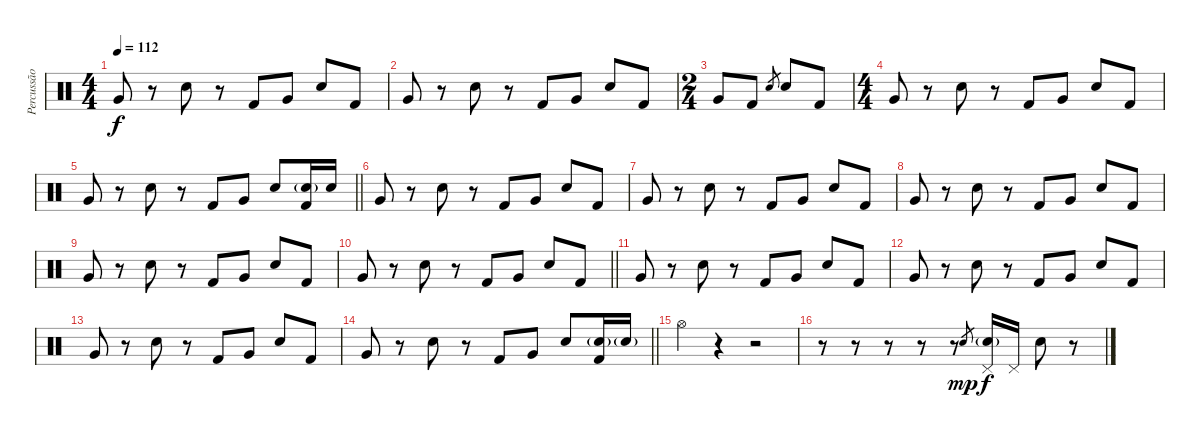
\track ("Percussão" "Percussão") {instrument percussion}
\staff {score}
\articulation defaults
\ts (4 4)
\tempo 112
\clef neutral
\ks c "Very Low Tom (hit)".8{dy f}
r.8 "Electric Snare (hit)".8 r.8 "Kick (hit) 2".8 "Very Low Tom (hit)".8 "Electric Snare (hit)".8 "Kick (hit) 2".8 |
"Very Low Tom (hit)".8 r.8 "Electric Snare (hit)".8 r.8 "Kick (hit) 2".8 "Very Low Tom (hit)".8 "Electric Snare (hit)".8 "Kick (hit) 2".8 |
\ts (2 4)
"Very Low Tom (hit)".8 "Kick (hit) 2".8 "Electric Snare (hit)".8{gr} "Electric Snare (hit)".8 "Kick (hit) 2".8 |
\ts (4 4)
"Very Low Tom (hit)".8 r.8 "Electric Snare (hit)".8 r.8 "Kick (hit) 2".8 "Very Low Tom (hit)".8 "Electric Snare (hit)".8 "Kick (hit) 2".8 |
\barLineRight lightlight "Very Low Tom (hit)".8
r.8 "Electric Snare (hit)".8 r.8 "Kick (hit) 2".8 "Very Low Tom (hit)".8 "Electric Snare (hit)".8 ("Electric Snare (hit)"{g} "Kick (hit) 2").16 "Electric Snare (hit)".16 |
"Very Low Tom (hit)".8 r.8 "Electric Snare (hit)".8 r.8 "Kick (hit) 2".8 "Very Low Tom (hit)".8 "Electric Snare (hit)".8 "Kick (hit) 2".8 |
"Very Low Tom (hit)".8 r.8 "Electric Snare (hit)".8 r.8 "Kick (hit) 2".8 "Very Low Tom (hit)".8 "Electric Snare (hit)".8 "Kick (hit) 2".8 |
"Very Low Tom (hit)".8 r.8 "Electric Snare (hit)".8 r.8 "Kick (hit) 2".8 "Very Low Tom (hit)".8 "Electric Snare (hit)".8 "Kick (hit) 2".8 |
"Very Low Tom (hit)".8 r.8 "Electric Snare (hit)".8 r.8 "Kick (hit) 2".8 "Very Low Tom (hit)".8 "Electric Snare (hit)".8 "Kick (hit) 2".8 |
\barLineRight lightlight "Very Low Tom (hit)".8
r.8 "Electric Snare (hit)".8 r.8 "Kick (hit) 2".8 "Very Low Tom (hit)".8 "Electric Snare (hit)".8 "Kick (hit) 2".8 |
"Very Low Tom (hit)".8 r.8 "Electric Snare (hit)".8 r.8 "Kick (hit) 2".8 "Very Low Tom (hit)".8 "Electric Snare (hit)".8 "Kick (hit) 2".8 |
"Very Low Tom (hit)".8 r.8 "Electric Snare (hit)".8 r.8 "Kick (hit) 2".8 "Very Low Tom (hit)".8 "Electric Snare (hit)".8 "Kick (hit) 2".8 |
"Very Low Tom (hit)".8 r.8 "Electric Snare (hit)".8 r.8 "Kick (hit) 2".8 "Very Low Tom (hit)".8 "Electric Snare (hit)".8 "Kick (hit) 2".8 |
\barLineRight lightlight "Very Low Tom (hit)".8
r.8 "Electric Snare (hit)".8 r.8 "Kick (hit) 2".8 "Very Low Tom (hit)".8 "Electric Snare (hit)".8 ("Kick (hit) 2" "Electric Snare (hit)"{g}).16 "Electric Snare (hit)"{g}.16 |
"Hi-Hat (open)".4 r.4 r.2 |
r.8 r.8 r.8 r.8 r.8 "Electric Snare (hit)".8{gr dy mp} ("Pedal Hi-Hat (hit)" "Electric Snare (hit)"{g}).16{dy f} "Pedal Hi-Hat (hit)".16 "Electric Snare (hit)".8 r.8
